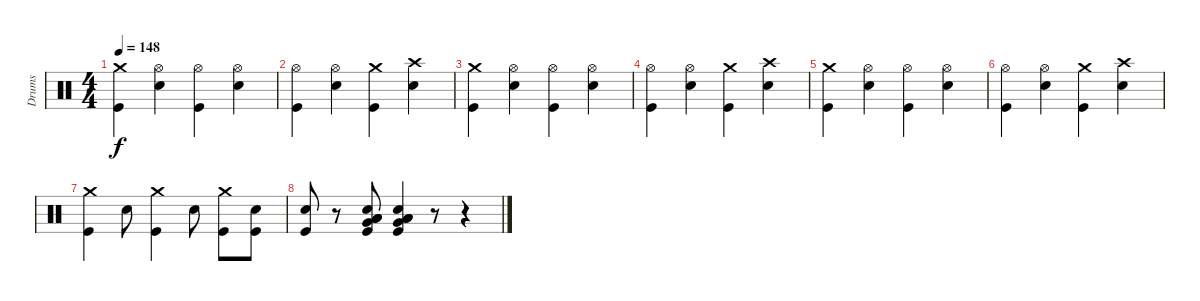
\track ("Drums" "Drums") {instrument percussion}
\staff {score}
\articulation defaults
\ts (4 4)
\tempo 148
\clef neutral
\ks c
("Kick (hit)" "Crash medium (hit)").4{dy f} ("Snare (hit) 2" "Hi-Hat (open)").4 ("Kick (hit)" "Hi-Hat (open)").4 ("Snare (hit) 2" "Hi-Hat (open)").4 |
("Kick (hit)" "Hi-Hat (open)").4 ("Snare (hit) 2" "Hi-Hat (open)").4 ("Kick (hit)" "Crash medium (hit)").4 ("Snare (hit) 2" "Crash high (hit)").4 |
("Kick (hit)" "Crash medium (hit)").4 ("Snare (hit) 2" "Hi-Hat (open)").4 ("Kick (hit)" "Hi-Hat (open)").4 ("Snare (hit) 2" "Hi-Hat (open)").4 |
("Kick (hit)" "Hi-Hat (open)").4 ("Snare (hit) 2" "Hi-Hat (open)").4 ("Kick (hit)" "Crash medium (hit)").4 ("Snare (hit) 2" "Crash high (hit)").4 |
("Kick (hit)" "Crash medium (hit)").4 ("Snare (hit) 2" "Hi-Hat (open)").4 ("Kick (hit)" "Hi-Hat (open)").4 ("Snare (hit) 2" "Hi-Hat (open)").4 |
("Kick (hit)" "Hi-Hat (open)").4 ("Snare (hit) 2" "Hi-Hat (open)").4 ("Kick (hit)" "Crash medium (hit)").4 ("Snare (hit) 2" "Crash high (hit)").4 |
("Kick (hit)" "Crash medium (hit)").4 "Snare (hit) 2".8 ("Kick (hit)" "Crash medium (hit)").4 "Snare (hit) 2".8 ("Kick (hit)" "Crash medium (hit)").8 ("Snare (hit) 2" "Kick (hit)").8 |
("Kick (hit)" "Snare (hit) 2").8 r.8 ("Snare (hit) 2" "Kick (hit)" "Low Floor Tom (hit)" "Very Low Tom (hit)" "Low Floor Tom (hit)").8 ("Kick (hit)" "Snare (hit) 2" "Low Floor Tom (hit)" "Very Low Tom (hit)" "Low Floor Tom (hit)").4 r.8 r.4
